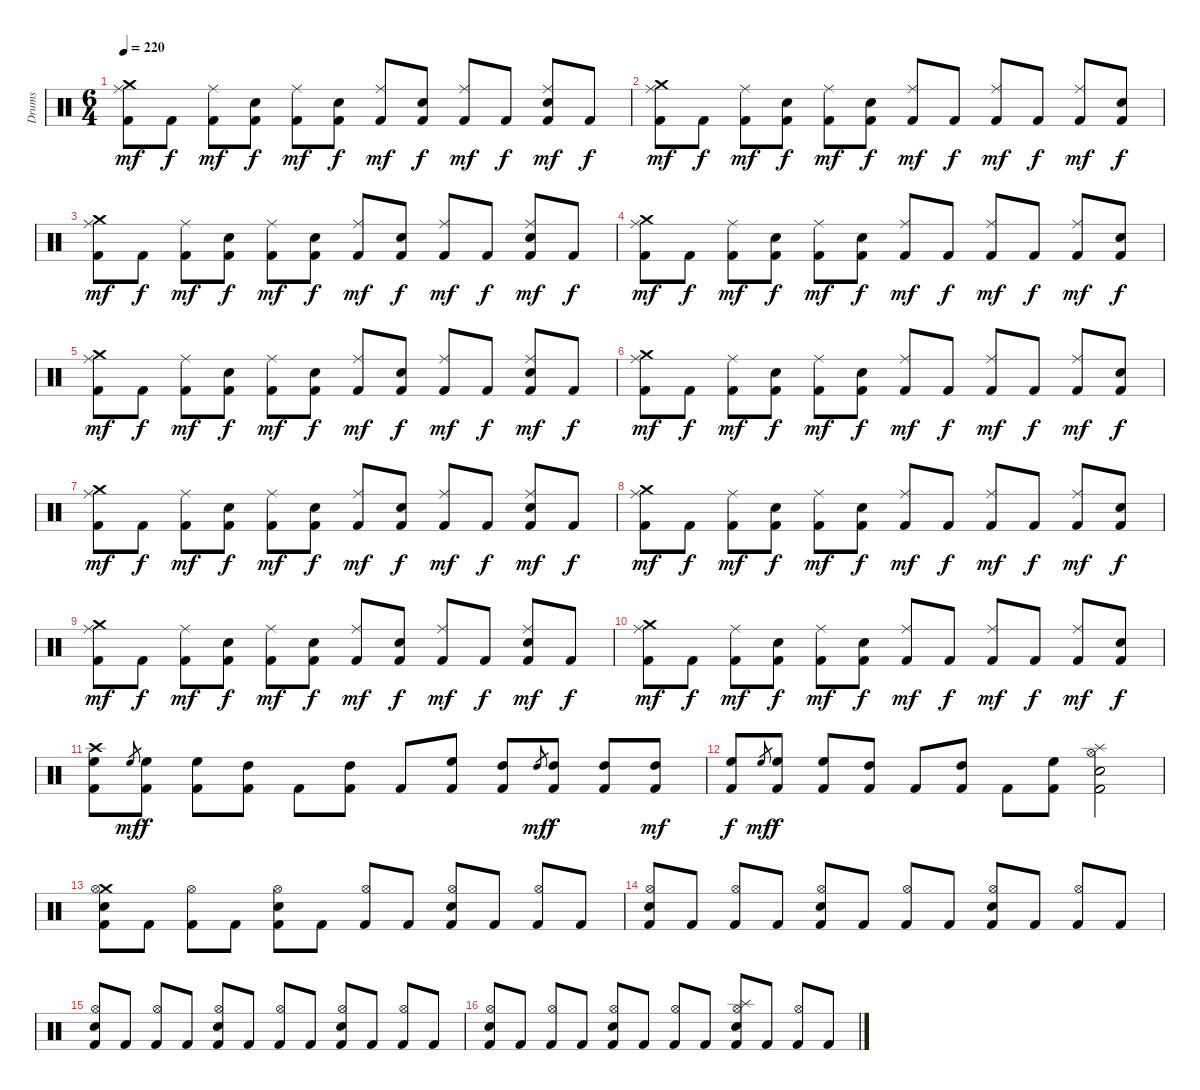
\bracketExtendMode groupsimilarinstruments
\otherSystemsTrackNameOrientation horizontal
\track ("Drumkit" "Drums") {instrument percussion}
\staff {score}
\articulation defaults
\ts (6 4)
\tempo 220
\clef neutral
\ks c
("Ride (middle)" "Crash medium (hit)" "Kick (hit) 2").8{dy mf beam Down} "Kick (hit) 2".8{dy f beam Down} ("Ride (middle)" "Kick (hit) 2").8{dy mf beam Down} ("Snare (hit) 2" "Kick (hit) 2").8{dy f beam Down} ("Ride (middle)" "Kick (hit) 2").8{dy mf beam Down} ("Snare (hit) 2" "Kick (hit) 2").8{dy f beam Down} ("Ride (middle)" "Kick (hit) 2").8{dy mf beam Up} ("Snare (hit) 2" "Kick (hit) 2").8{dy f beam Up} ("Ride (middle)" "Kick (hit) 2").8{dy mf beam Up} "Kick (hit) 2".8{dy f beam Up} ("Ride (middle)" "Snare (hit) 2" "Kick (hit) 2").8{dy mf beam Up} "Kick (hit) 2".8{dy f beam Up} |
("Ride (middle)" "Crash medium (hit)" "Kick (hit) 2").8{dy mf beam Down} "Kick (hit) 2".8{dy f beam Down} ("Ride (middle)" "Kick (hit) 2").8{dy mf beam Down} ("Snare (hit) 2" "Kick (hit) 2").8{dy f beam Down} ("Ride (middle)" "Kick (hit) 2").8{dy mf beam Down} ("Snare (hit) 2" "Kick (hit) 2").8{dy f beam Down} ("Ride (middle)" "Kick (hit) 2").8{dy mf beam Up} "Kick (hit) 2".8{dy f beam Up} ("Ride (middle)" "Kick (hit) 2").8{dy mf beam Up} "Kick (hit) 2".8{dy f beam Up} ("Ride (middle)" "Kick (hit) 2").8{dy mf beam Up} ("Snare (hit) 2" "Kick (hit) 2").8{dy f beam Up} |
("Ride (middle)" "Crash medium (hit)" "Kick (hit) 2").8{dy mf beam Down} "Kick (hit) 2".8{dy f beam Down} ("Ride (middle)" "Kick (hit) 2").8{dy mf beam Down} ("Snare (hit) 2" "Kick (hit) 2").8{dy f beam Down} ("Ride (middle)" "Kick (hit) 2").8{dy mf beam Down} ("Snare (hit) 2" "Kick (hit) 2").8{dy f beam Down} ("Ride (middle)" "Kick (hit) 2").8{dy mf beam Up} ("Snare (hit) 2" "Kick (hit) 2").8{dy f beam Up} ("Ride (middle)" "Kick (hit) 2").8{dy mf beam Up} "Kick (hit) 2".8{dy f beam Up} ("Ride (middle)" "Snare (hit) 2" "Kick (hit) 2").8{dy mf beam Up} "Kick (hit) 2".8{dy f beam Up} |
("Ride (middle)" "Crash medium (hit)" "Kick (hit) 2").8{dy mf beam Down} "Kick (hit) 2".8{dy f beam Down} ("Ride (middle)" "Kick (hit) 2").8{dy mf beam Down} ("Snare (hit) 2" "Kick (hit) 2").8{dy f beam Down} ("Ride (middle)" "Kick (hit) 2").8{dy mf beam Down} ("Snare (hit) 2" "Kick (hit) 2").8{dy f beam Down} ("Ride (middle)" "Kick (hit) 2").8{dy mf beam Up} "Kick (hit) 2".8{dy f beam Up} ("Ride (middle)" "Kick (hit) 2").8{dy mf beam Up} "Kick (hit) 2".8{dy f beam Up} ("Ride (middle)" "Kick (hit) 2").8{dy mf beam Up} ("Snare (hit) 2" "Kick (hit) 2").8{dy f beam Up} |
("Ride (middle)" "Crash medium (hit)" "Kick (hit) 2").8{dy mf beam Down} "Kick (hit) 2".8{dy f beam Down} ("Ride (middle)" "Kick (hit) 2").8{dy mf beam Down} ("Snare (hit) 2" "Kick (hit) 2").8{dy f beam Down} ("Ride (middle)" "Kick (hit) 2").8{dy mf beam Down} ("Snare (hit) 2" "Kick (hit) 2").8{dy f beam Down} ("Ride (middle)" "Kick (hit) 2").8{dy mf beam Up} ("Snare (hit) 2" "Kick (hit) 2").8{dy f beam Up} ("Ride (middle)" "Kick (hit) 2").8{dy mf beam Up} "Kick (hit) 2".8{dy f beam Up} ("Ride (middle)" "Snare (hit) 2" "Kick (hit) 2").8{dy mf beam Up} "Kick (hit) 2".8{dy f beam Up} |
("Ride (middle)" "Crash medium (hit)" "Kick (hit) 2").8{dy mf beam Down} "Kick (hit) 2".8{dy f beam Down} ("Ride (middle)" "Kick (hit) 2").8{dy mf beam Down} ("Snare (hit) 2" "Kick (hit) 2").8{dy f beam Down} ("Ride (middle)" "Kick (hit) 2").8{dy mf beam Down} ("Snare (hit) 2" "Kick (hit) 2").8{dy f beam Down} ("Ride (middle)" "Kick (hit) 2").8{dy mf beam Up} "Kick (hit) 2".8{dy f beam Up} ("Ride (middle)" "Kick (hit) 2").8{dy mf beam Up} "Kick (hit) 2".8{dy f beam Up} ("Ride (middle)" "Kick (hit) 2").8{dy mf beam Up} ("Snare (hit) 2" "Kick (hit) 2").8{dy f beam Up} |
("Ride (middle)" "Crash medium (hit)" "Kick (hit) 2").8{dy mf beam Down} "Kick (hit) 2".8{dy f beam Down} ("Ride (middle)" "Kick (hit) 2").8{dy mf beam Down} ("Snare (hit) 2" "Kick (hit) 2").8{dy f beam Down} ("Ride (middle)" "Kick (hit) 2").8{dy mf beam Down} ("Snare (hit) 2" "Kick (hit) 2").8{dy f beam Down} ("Ride (middle)" "Kick (hit) 2").8{dy mf beam Up} ("Snare (hit) 2" "Kick (hit) 2").8{dy f beam Up} ("Ride (middle)" "Kick (hit) 2").8{dy mf beam Up} "Kick (hit) 2".8{dy f beam Up} ("Ride (middle)" "Snare (hit) 2" "Kick (hit) 2").8{dy mf beam Up} "Kick (hit) 2".8{dy f beam Up} |
("Ride (middle)" "Crash medium (hit)" "Kick (hit) 2").8{dy mf beam Down} "Kick (hit) 2".8{dy f beam Down} ("Ride (middle)" "Kick (hit) 2").8{dy mf beam Down} ("Snare (hit) 2" "Kick (hit) 2").8{dy f beam Down} ("Ride (middle)" "Kick (hit) 2").8{dy mf beam Down} ("Snare (hit) 2" "Kick (hit) 2").8{dy f beam Down} ("Ride (middle)" "Kick (hit) 2").8{dy mf beam Up} "Kick (hit) 2".8{dy f beam Up} ("Ride (middle)" "Kick (hit) 2").8{dy mf beam Up} "Kick (hit) 2".8{dy f beam Up} ("Ride (middle)" "Kick (hit) 2").8{dy mf beam Up} ("Snare (hit) 2" "Kick (hit) 2").8{dy f beam Up} |
("Ride (middle)" "Crash medium (hit)" "Kick (hit) 2").8{dy mf beam Down} "Kick (hit) 2".8{dy f beam Down} ("Ride (middle)" "Kick (hit) 2").8{dy mf beam Down} ("Snare (hit) 2" "Kick (hit) 2").8{dy f beam Down} ("Ride (middle)" "Kick (hit) 2").8{dy mf beam Down} ("Snare (hit) 2" "Kick (hit) 2").8{dy f beam Down} ("Ride (middle)" "Kick (hit) 2").8{dy mf beam Up} ("Snare (hit) 2" "Kick (hit) 2").8{dy f beam Up} ("Ride (middle)" "Kick (hit) 2").8{dy mf beam Up} "Kick (hit) 2".8{dy f beam Up} ("Ride (middle)" "Snare (hit) 2" "Kick (hit) 2").8{dy mf beam Up} "Kick (hit) 2".8{dy f beam Up} |
("Ride (middle)" "Crash medium (hit)" "Kick (hit) 2").8{dy mf beam Down} "Kick (hit) 2".8{dy f beam Down} ("Ride (middle)" "Kick (hit) 2").8{dy mf beam Down} ("Snare (hit) 2" "Kick (hit) 2").8{dy f beam Down} ("Ride (middle)" "Kick (hit) 2").8{dy mf beam Down} ("Snare (hit) 2" "Kick (hit) 2").8{dy f beam Down} ("Ride (middle)" "Kick (hit) 2").8{dy mf beam Up} "Kick (hit) 2".8{dy f beam Up} ("Ride (middle)" "Kick (hit) 2").8{dy mf beam Up} "Kick (hit) 2".8{dy f beam Up} ("Ride (middle)" "Kick (hit) 2").8{dy mf beam Up} ("Snare (hit) 2" "Kick (hit) 2").8{dy f beam Up} |
("Crash high (hit)" "High Floor Tom (hit)" "Kick (hit) 2").8{beam Down} "High Floor Tom (hit)".8{gr dy mf beam Up} ("High Floor Tom (hit)" "Kick (hit) 2").8{dy f beam Down} ("High Floor Tom (hit)" "Kick (hit) 2").8{beam Down} ("High Tom (hit)" "Kick (hit) 2").8{beam Down} "Kick (hit) 2".8{beam Down} ("High Tom (hit)" "Kick (hit) 2").8{beam Down} "Kick (hit) 2".8{beam Up} ("High Floor Tom (hit)" "Kick (hit) 2").8{beam Up} ("High Tom (hit)" "Kick (hit) 2").8{beam Up} "High Tom (hit)".8{gr dy mf beam Up} ("High Tom (hit)" "Kick (hit) 2").8{dy f beam Up} ("High Tom (hit)" "Kick (hit) 2").8{beam Up} ("High Tom (hit)" "Kick (hit) 2").8{dy mf beam Up} |
("High Floor Tom (hit)" "Kick (hit) 2").8{dy f beam Up} "High Floor Tom (hit)".8{gr dy mf beam Up} ("High Floor Tom (hit)" "Kick (hit) 2").8{dy f beam Up} ("High Floor Tom (hit)" "Kick (hit) 2").8{beam Up} ("High Tom (hit)" "Kick (hit) 2").8{beam Up} "Kick (hit) 2".8{beam Up} ("High Tom (hit)" "Kick (hit) 2").8{beam Up} "Kick (hit) 2".8{beam Down} ("High Floor Tom (hit)" "Kick (hit) 2").8{beam Down} ("Splash (hit)" "Hi-Hat (open)" "Snare (hit) 2" "Kick (hit) 2").2{beam Down} |
("Crash medium (hit)" "Hi-Hat (open)" "Snare (hit) 2" "Kick (hit) 2").8{beam Down} "Kick (hit) 2".8{beam Down} ("Hi-Hat (open)" "Kick (hit) 2").8{beam Down} "Kick (hit) 2".8{beam Down} ("Hi-Hat (open)" "Snare (hit) 2" "Kick (hit) 2").8{beam Down} "Kick (hit) 2".8{beam Down} ("Hi-Hat (open)" "Kick (hit) 2").8{beam Up} "Kick (hit) 2".8{beam Up} ("Hi-Hat (open)" "Snare (hit) 2" "Kick (hit) 2").8{beam Up} "Kick (hit) 2".8{beam Up} ("Hi-Hat (open)" "Kick (hit) 2").8{beam Up} "Kick (hit) 2".8{beam Up} |
("Hi-Hat (open)" "Snare (hit) 2" "Kick (hit) 2").8{beam Up} "Kick (hit) 2".8{beam Up} ("Hi-Hat (open)" "Kick (hit) 2").8{beam Up} "Kick (hit) 2".8{beam Up} ("Hi-Hat (open)" "Snare (hit) 2" "Kick (hit) 2").8{beam Up} "Kick (hit) 2".8{beam Up} ("Hi-Hat (open)" "Kick (hit) 2").8{beam Up} "Kick (hit) 2".8{beam Up} ("Hi-Hat (open)" "Snare (hit) 2" "Kick (hit) 2").8{beam Up} "Kick (hit) 2".8{beam Up} ("Hi-Hat (open)" "Kick (hit) 2").8{beam Up} "Kick (hit) 2".8{beam Up} |
("Hi-Hat (open)" "Snare (hit) 2" "Kick (hit) 2").8{beam Up} "Kick (hit) 2".8{beam Up} ("Hi-Hat (open)" "Kick (hit) 2").8{beam Up} "Kick (hit) 2".8{beam Up} ("Hi-Hat (open)" "Snare (hit) 2" "Kick (hit) 2").8{beam Up} "Kick (hit) 2".8{beam Up} ("Hi-Hat (open)" "Kick (hit) 2").8{beam Up} "Kick (hit) 2".8{beam Up} ("Hi-Hat (open)" "Snare (hit) 2" "Kick (hit) 2").8{beam Up} "Kick (hit) 2".8{beam Up} ("Hi-Hat (open)" "Kick (hit) 2").8{beam Up} "Kick (hit) 2".8{beam Up} |
("Hi-Hat (open)" "Snare (hit) 2" "Kick (hit) 2").8{beam Up} "Kick (hit) 2".8{beam Up} ("Hi-Hat (open)" "Kick (hit) 2").8{beam Up} "Kick (hit) 2".8{beam Up} ("Hi-Hat (open)" "Snare (hit) 2" "Kick (hit) 2").8{beam Up} "Kick (hit) 2".8{beam Up} ("Hi-Hat (open)" "Kick (hit) 2").8{beam Up} "Kick (hit) 2".8{beam Up} ("Splash (hit)" "Hi-Hat (open)" "Snare (hit) 2" "Kick (hit) 2").8{beam Up} "Kick (hit) 2".8{beam Up} ("Hi-Hat (open)" "Kick (hit) 2").8{beam Up} "Kick (hit) 2".8{beam Up}
